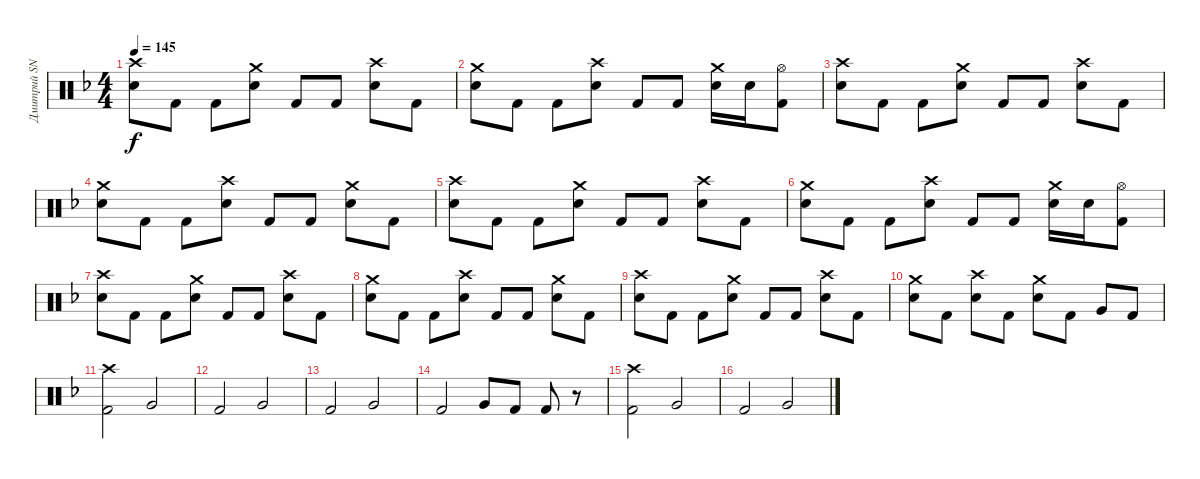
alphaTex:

\track ("Дмитрий SNAKE Хакимов" "Дмитрий SN") {instrument percussion}
\staff {score}
\articulation defaults
\ts (4 4)
\tempo 145
\clef neutral
\ks f
("Crash high (hit)" "Snare (hit) 2").8{dy f} "Kick (hit) 2".8 "Kick (hit) 2".8 ("Crash medium (hit)" "Snare (hit) 2").8 "Kick (hit) 2".8 "Kick (hit) 2".8 ("Crash high (hit)" "Snare (hit) 2").8 "Kick (hit) 2".8 |
("Crash medium (hit)" "Snare (hit) 2").8 "Kick (hit) 2".8 "Kick (hit) 2".8 ("Crash high (hit)" "Snare (hit) 2").8 "Kick (hit) 2".8 "Kick (hit) 2".8 ("Crash medium (hit)" "Snare (hit) 2").16 "Snare (hit) 2".16 ("Hi-Hat (open)" "Kick (hit) 2").8 |
("Crash high (hit)" "Snare (hit) 2").8 "Kick (hit) 2".8 "Kick (hit) 2".8 ("Crash medium (hit)" "Snare (hit) 2").8 "Kick (hit) 2".8 "Kick (hit) 2".8 ("Crash high (hit)" "Snare (hit) 2").8 "Kick (hit) 2".8 |
("Crash medium (hit)" "Snare (hit) 2").8 "Kick (hit) 2".8 "Kick (hit) 2".8 ("Crash high (hit)" "Snare (hit) 2").8 "Kick (hit) 2".8 "Kick (hit) 2".8 ("Crash medium (hit)" "Snare (hit) 2").8 "Kick (hit) 2".8 |
("Crash high (hit)" "Snare (hit) 2").8 "Kick (hit) 2".8 "Kick (hit) 2".8 ("Crash medium (hit)" "Snare (hit) 2").8 "Kick (hit) 2".8 "Kick (hit) 2".8 ("Crash high (hit)" "Snare (hit) 2").8 "Kick (hit) 2".8 |
("Crash medium (hit)" "Snare (hit) 2").8 "Kick (hit) 2".8 "Kick (hit) 2".8 ("Crash high (hit)" "Snare (hit) 2").8 "Kick (hit) 2".8 "Kick (hit) 2".8 ("Crash medium (hit)" "Snare (hit) 2").16 "Snare (hit) 2".16 ("Hi-Hat (open)" "Kick (hit) 2").8 |
("Crash high (hit)" "Snare (hit) 2").8 "Kick (hit) 2".8 "Kick (hit) 2".8 ("Crash medium (hit)" "Snare (hit) 2").8 "Kick (hit) 2".8 "Kick (hit) 2".8 ("Crash high (hit)" "Snare (hit) 2").8 "Kick (hit) 2".8 |
("Crash medium (hit)" "Snare (hit) 2").8 "Kick (hit) 2".8 "Kick (hit) 2".8 ("Crash high (hit)" "Snare (hit) 2").8 "Kick (hit) 2".8 "Kick (hit) 2".8 ("Crash medium (hit)" "Snare (hit) 2").8 "Kick (hit) 2".8 |
("Crash high (hit)" "Snare (hit) 2").8 "Kick (hit) 2".8 "Kick (hit) 2".8 ("Crash medium (hit)" "Snare (hit) 2").8 "Kick (hit) 2".8 "Kick (hit) 2".8 ("Crash high (hit)" "Snare (hit) 2").8 "Kick (hit) 2".8 |
("Crash medium (hit)" "Snare (hit) 2").8 "Kick (hit) 2".8 ("Crash high (hit)" "Snare (hit) 2").8 "Kick (hit) 2".8 ("Crash medium (hit)" "Snare (hit) 2").8 "Kick (hit) 2".8 "Very Low Tom (hit)".8 "Kick (hit) 2".8 |
("Crash high (hit)" "Kick (hit) 2").2 "Very Low Tom (hit)".2 |
"Kick (hit) 2".2 "Very Low Tom (hit)".2 |
"Kick (hit) 2".2 "Very Low Tom (hit)".2 |
"Kick (hit) 2".2 "Very Low Tom (hit)".8 "Kick (hit) 2".8 "Kick (hit) 2".8 r.8 |
("Crash high (hit)" "Kick (hit) 2").2 "Very Low Tom (hit)".2 |
"Kick (hit) 2".2 "Very Low Tom (hit)".2
